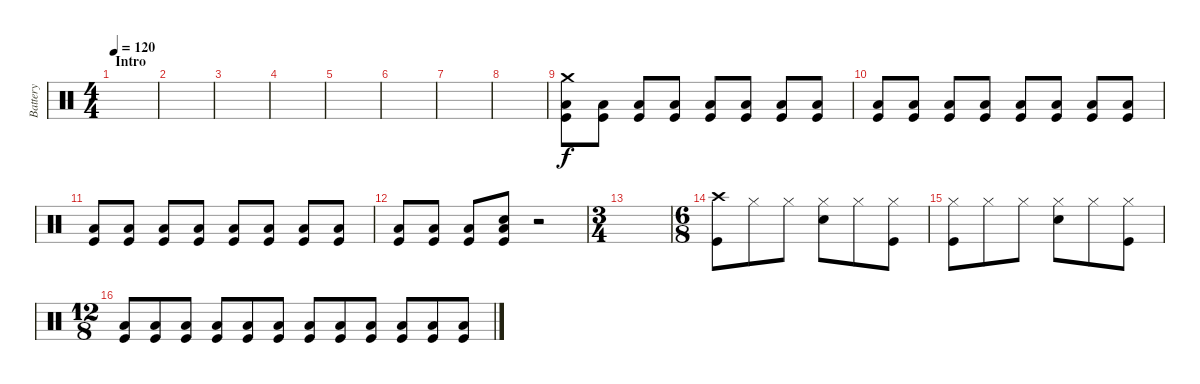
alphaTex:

\track ("Battery" "Battery") {instrument percussion}
\staff {score}
\articulation defaults
\ts (4 4)
\section ("" "Intro")
\tempo 120
\clef neutral
\ks c
|
|
|
|
|
|
|
|
("Crash medium (hit)" "Kick (hit)" "Low Floor Tom (hit)").8 ("Kick (hit)" "Low Floor Tom (hit)").8 ("Kick (hit)" "Low Floor Tom (hit)").8 ("Kick (hit)" "Low Floor Tom (hit)").8 ("Kick (hit)" "Low Floor Tom (hit)").8 ("Kick (hit)" "Low Floor Tom (hit)").8 ("Kick (hit)" "Low Floor Tom (hit)").8 ("Kick (hit)" "Low Floor Tom (hit)").8 |
("Kick (hit)" "Low Floor Tom (hit)").8 ("Kick (hit)" "Low Floor Tom (hit)").8 ("Kick (hit)" "Low Floor Tom (hit)").8 ("Kick (hit)" "Low Floor Tom (hit)").8 ("Kick (hit)" "Low Floor Tom (hit)").8 ("Kick (hit)" "Low Floor Tom (hit)").8 ("Kick (hit)" "Low Floor Tom (hit)").8 ("Kick (hit)" "Low Floor Tom (hit)").8 |
("Kick (hit)" "Low Floor Tom (hit)").8 ("Kick (hit)" "Low Floor Tom (hit)").8 ("Kick (hit)" "Low Floor Tom (hit)").8 ("Kick (hit)" "Low Floor Tom (hit)").8 ("Kick (hit)" "Low Floor Tom (hit)").8 ("Kick (hit)" "Low Floor Tom (hit)").8 ("Kick (hit)" "Low Floor Tom (hit)").8 ("Kick (hit)" "Low Floor Tom (hit)").8 |
("Kick (hit)" "Low Floor Tom (hit)").8 ("Kick (hit)" "Low Floor Tom (hit)").8 ("Kick (hit)" "Low Floor Tom (hit)").8 ("Electric Snare (hit)" "Kick (hit)" "Low Floor Tom (hit)").8 r.2 |
\ts (3 4)
|
\ts (6 8)
("Crash high (hit)" "Kick (hit)").8 "Hi-Hat (closed)".8 "Hi-Hat (closed)".8 ("Hi-Hat (closed)" "Electric Snare (hit)").8 "Hi-Hat (closed)".8 ("Hi-Hat (closed)" "Kick (hit)").8 |
("Hi-Hat (closed)" "Kick (hit)").8 "Hi-Hat (closed)".8 "Hi-Hat (closed)".8 ("Hi-Hat (closed)" "Electric Snare (hit)").8 "Hi-Hat (closed)".8 ("Hi-Hat (closed)" "Kick (hit)").8 |
\ts (12 8)
("Low Floor Tom (hit)" "Kick (hit)").8 ("Low Floor Tom (hit)" "Kick (hit)").8 ("Low Floor Tom (hit)" "Kick (hit)").8 ("Low Floor Tom (hit)" "Kick (hit)").8 ("Low Floor Tom (hit)" "Kick (hit)").8 ("Low Floor Tom (hit)" "Kick (hit)").8 ("Low Floor Tom (hit)" "Kick (hit)").8 ("Low Floor Tom (hit)" "Kick (hit)").8 ("Low Floor Tom (hit)" "Kick (hit)").8 ("Low Floor Tom (hit)" "Kick (hit)").8 ("Low Floor Tom (hit)" "Kick (hit)").8 ("Low Floor Tom (hit)" "Kick (hit)").8
